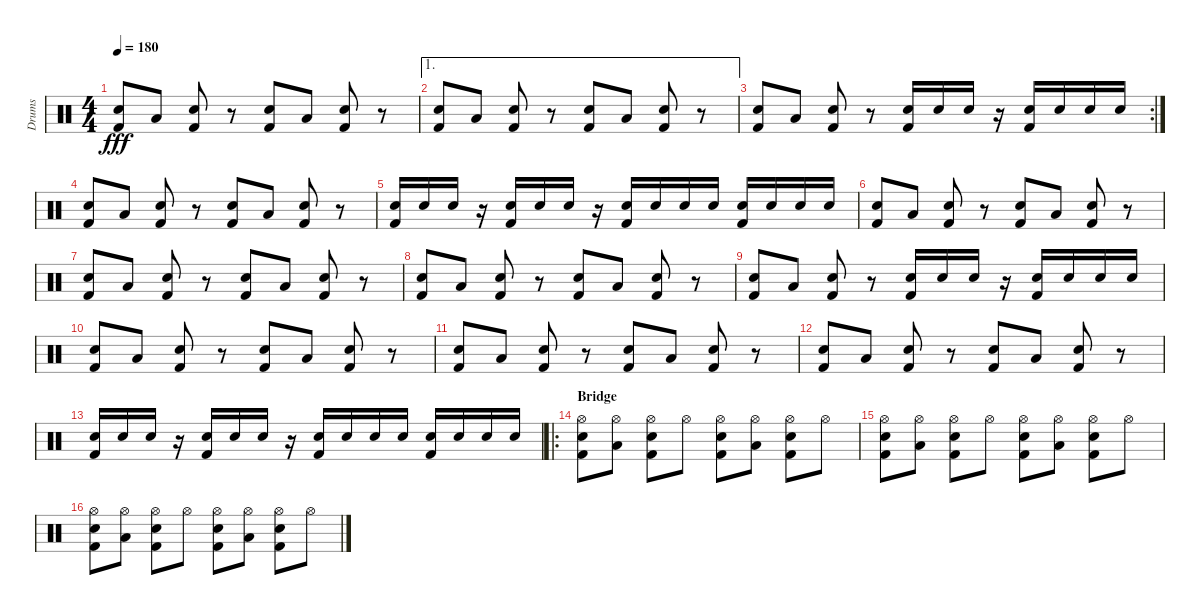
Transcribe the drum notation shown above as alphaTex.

\track ("Drums" "Drums") {instrument percussion}
\staff {score}
\articulation defaults
\ts (4 4)
\tempo 180
\clef neutral
\ks c
("Snare (hit) 2" "Kick (hit) 2").8{dy fff} "Low Floor Tom (hit)".8 ("Snare (hit) 2" "Kick (hit) 2").8 r.8 ("Snare (hit) 2" "Kick (hit) 2").8 "Low Floor Tom (hit)".8 ("Snare (hit) 2" "Kick (hit) 2").8 r.8 |
\ae 1
("Snare (hit) 2" "Kick (hit) 2").8 "Low Floor Tom (hit)".8 ("Snare (hit) 2" "Kick (hit) 2").8 r.8 ("Snare (hit) 2" "Kick (hit) 2").8 "Low Floor Tom (hit)".8 ("Snare (hit) 2" "Kick (hit) 2").8 r.8 |
\rc 2
("Snare (hit) 2" "Kick (hit) 2").8 "Low Floor Tom (hit)".8 ("Snare (hit) 2" "Kick (hit) 2").8 r.8 ("Snare (hit) 2" "Kick (hit) 2").16 "Snare (hit) 2".16 "Snare (hit) 2".16 r.16 ("Snare (hit) 2" "Kick (hit) 2").16 "Snare (hit) 2".16 "Snare (hit) 2".16 "Snare (hit) 2".16 |
("Snare (hit) 2" "Kick (hit) 2").8 "Low Floor Tom (hit)".8 ("Snare (hit) 2" "Kick (hit) 2").8 r.8 ("Snare (hit) 2" "Kick (hit) 2").8 "Low Floor Tom (hit)".8 ("Snare (hit) 2" "Kick (hit) 2").8 r.8 |
("Snare (hit) 2" "Kick (hit) 2").16 "Snare (hit) 2".16 "Snare (hit) 2".16 r.16 ("Snare (hit) 2" "Kick (hit) 2").16 "Snare (hit) 2".16 "Snare (hit) 2".16 r.16 ("Snare (hit) 2" "Kick (hit) 2").16 "Snare (hit) 2".16 "Snare (hit) 2".16 "Snare (hit) 2".16 ("Snare (hit) 2" "Kick (hit) 2").16 "Snare (hit) 2".16 "Snare (hit) 2".16 "Snare (hit) 2".16 |
("Snare (hit) 2" "Kick (hit) 2").8 "Low Floor Tom (hit)".8 ("Snare (hit) 2" "Kick (hit) 2").8 r.8 ("Snare (hit) 2" "Kick (hit) 2").8 "Low Floor Tom (hit)".8 ("Snare (hit) 2" "Kick (hit) 2").8 r.8 |
("Snare (hit) 2" "Kick (hit) 2").8 "Low Floor Tom (hit)".8 ("Snare (hit) 2" "Kick (hit) 2").8 r.8 ("Snare (hit) 2" "Kick (hit) 2").8 "Low Floor Tom (hit)".8 ("Snare (hit) 2" "Kick (hit) 2").8 r.8 |
("Snare (hit) 2" "Kick (hit) 2").8 "Low Floor Tom (hit)".8 ("Snare (hit) 2" "Kick (hit) 2").8 r.8 ("Snare (hit) 2" "Kick (hit) 2").8 "Low Floor Tom (hit)".8 ("Snare (hit) 2" "Kick (hit) 2").8 r.8 |
("Snare (hit) 2" "Kick (hit) 2").8 "Low Floor Tom (hit)".8 ("Snare (hit) 2" "Kick (hit) 2").8 r.8 ("Snare (hit) 2" "Kick (hit) 2").16 "Snare (hit) 2".16 "Snare (hit) 2".16 r.16 ("Snare (hit) 2" "Kick (hit) 2").16 "Snare (hit) 2".16 "Snare (hit) 2".16 "Snare (hit) 2".16 |
("Snare (hit) 2" "Kick (hit) 2").8 "Low Floor Tom (hit)".8 ("Snare (hit) 2" "Kick (hit) 2").8 r.8 ("Snare (hit) 2" "Kick (hit) 2").8 "Low Floor Tom (hit)".8 ("Snare (hit) 2" "Kick (hit) 2").8 r.8 |
("Snare (hit) 2" "Kick (hit) 2").8 "Low Floor Tom (hit)".8 ("Snare (hit) 2" "Kick (hit) 2").8 r.8 ("Snare (hit) 2" "Kick (hit) 2").8 "Low Floor Tom (hit)".8 ("Snare (hit) 2" "Kick (hit) 2").8 r.8 |
("Snare (hit) 2" "Kick (hit) 2").8 "Low Floor Tom (hit)".8 ("Snare (hit) 2" "Kick (hit) 2").8 r.8 ("Snare (hit) 2" "Kick (hit) 2").8 "Low Floor Tom (hit)".8 ("Snare (hit) 2" "Kick (hit) 2").8 r.8 |
("Snare (hit) 2" "Kick (hit) 2").16 "Snare (hit) 2".16 "Snare (hit) 2".16 r.16 ("Snare (hit) 2" "Kick (hit) 2").16 "Snare (hit) 2".16 "Snare (hit) 2".16 r.16 ("Snare (hit) 2" "Kick (hit) 2").16 "Snare (hit) 2".16 "Snare (hit) 2".16 "Snare (hit) 2".16 ("Snare (hit) 2" "Kick (hit) 2").16 "Snare (hit) 2".16 "Snare (hit) 2".16 "Snare (hit) 2".16 |
\ro
\section ("" "Bridge")
("Hi-Hat (open)" "Snare (hit) 2" "Kick (hit) 2").8 ("Hi-Hat (open)" "Low Floor Tom (hit)").8 ("Hi-Hat (open)" "Snare (hit) 2" "Kick (hit) 2").8 "Hi-Hat (open)".8 ("Hi-Hat (open)" "Snare (hit) 2" "Kick (hit) 2").8 ("Hi-Hat (open)" "Low Floor Tom (hit)").8 ("Hi-Hat (open)" "Snare (hit) 2" "Kick (hit) 2").8 "Hi-Hat (open)".8 |
("Hi-Hat (open)" "Snare (hit) 2" "Kick (hit) 2").8 ("Hi-Hat (open)" "Low Floor Tom (hit)").8 ("Hi-Hat (open)" "Snare (hit) 2" "Kick (hit) 2").8 "Hi-Hat (open)".8 ("Hi-Hat (open)" "Snare (hit) 2" "Kick (hit) 2").8 ("Hi-Hat (open)" "Low Floor Tom (hit)").8 ("Hi-Hat (open)" "Snare (hit) 2" "Kick (hit) 2").8 "Hi-Hat (open)".8 |
("Hi-Hat (open)" "Snare (hit) 2" "Kick (hit) 2").8 ("Hi-Hat (open)" "Low Floor Tom (hit)").8 ("Hi-Hat (open)" "Snare (hit) 2" "Kick (hit) 2").8 "Hi-Hat (open)".8 ("Hi-Hat (open)" "Snare (hit) 2" "Kick (hit) 2").8 ("Hi-Hat (open)" "Low Floor Tom (hit)").8 ("Hi-Hat (open)" "Snare (hit) 2" "Kick (hit) 2").8 "Hi-Hat (open)".8
